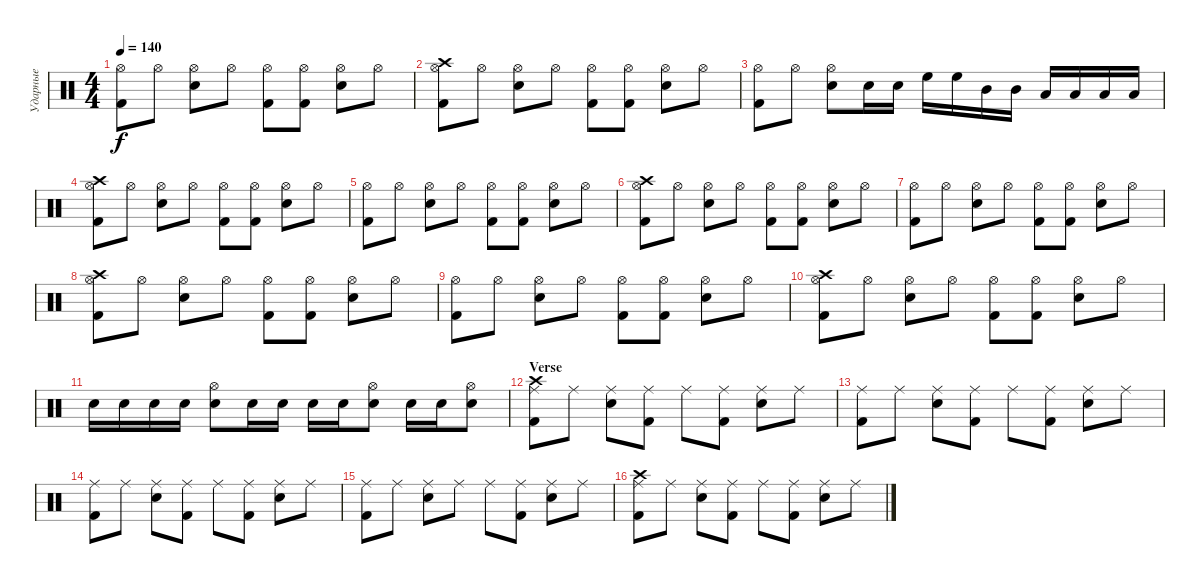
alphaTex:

\track ("Ударные" "Ударные") {instrument percussion}
\staff {score}
\articulation defaults
\ts (4 4)
\tempo 140
\clef neutral
\ks c
("Hi-Hat (open)" "Kick (hit) 2").8{dy f} "Hi-Hat (open)".8 ("Hi-Hat (open)" "Snare (hit) 2").8 "Hi-Hat (open)".8 ("Hi-Hat (open)" "Kick (hit) 2").8 ("Hi-Hat (open)" "Kick (hit) 2").8 ("Hi-Hat (open)" "Snare (hit) 2").8 "Hi-Hat (open)".8 |
("Hi-Hat (open)" "Crash high (hit)" "Kick (hit) 2").8 "Hi-Hat (open)".8 ("Hi-Hat (open)" "Snare (hit) 2").8 "Hi-Hat (open)".8 ("Hi-Hat (open)" "Kick (hit) 2").8 ("Hi-Hat (open)" "Kick (hit) 2").8 ("Hi-Hat (open)" "Snare (hit) 2").8 "Hi-Hat (open)".8 |
("Hi-Hat (open)" "Kick (hit) 2").8 "Hi-Hat (open)".8 ("Hi-Hat (open)" "Snare (hit) 2").8 "Snare (hit) 2".16 "Snare (hit) 2".16 "High Floor Tom (hit)".16 "High Floor Tom (hit)".16 "Mid Tom (hit)".16 "Mid Tom (hit)".16 "Low Tom (hit)".16 "Low Tom (hit)".16 "Low Floor Tom (hit)".16 "Low Floor Tom (hit)".16 |
("Hi-Hat (open)" "Crash high (hit)" "Kick (hit) 2").8 "Hi-Hat (open)".8 ("Hi-Hat (open)" "Snare (hit) 2").8 "Hi-Hat (open)".8 ("Hi-Hat (open)" "Kick (hit) 2").8 ("Hi-Hat (open)" "Kick (hit) 2").8 ("Hi-Hat (open)" "Snare (hit) 2").8 "Hi-Hat (open)".8 |
("Hi-Hat (open)" "Kick (hit) 2").8 "Hi-Hat (open)".8 ("Hi-Hat (open)" "Snare (hit) 2").8 "Hi-Hat (open)".8 ("Hi-Hat (open)" "Kick (hit) 2").8 ("Hi-Hat (open)" "Kick (hit) 2").8 ("Hi-Hat (open)" "Snare (hit) 2").8 "Hi-Hat (open)".8 |
("Hi-Hat (open)" "Crash high (hit)" "Kick (hit) 2").8 "Hi-Hat (open)".8 ("Hi-Hat (open)" "Snare (hit) 2").8 "Hi-Hat (open)".8 ("Hi-Hat (open)" "Kick (hit) 2").8 ("Hi-Hat (open)" "Kick (hit) 2").8 ("Hi-Hat (open)" "Snare (hit) 2").8 "Hi-Hat (open)".8 |
("Hi-Hat (open)" "Kick (hit) 2").8 "Hi-Hat (open)".8 ("Hi-Hat (open)" "Snare (hit) 2").8 "Hi-Hat (open)".8 ("Hi-Hat (open)" "Kick (hit) 2").8 ("Hi-Hat (open)" "Kick (hit) 2").8 ("Hi-Hat (open)" "Snare (hit) 2").8 "Hi-Hat (open)".8 |
("Hi-Hat (open)" "Crash high (hit)" "Kick (hit) 2").8 "Hi-Hat (open)".8 ("Hi-Hat (open)" "Snare (hit) 2").8 "Hi-Hat (open)".8 ("Hi-Hat (open)" "Kick (hit) 2").8 ("Hi-Hat (open)" "Kick (hit) 2").8 ("Hi-Hat (open)" "Snare (hit) 2").8 "Hi-Hat (open)".8 |
("Hi-Hat (open)" "Kick (hit) 2").8 "Hi-Hat (open)".8 ("Hi-Hat (open)" "Snare (hit) 2").8 "Hi-Hat (open)".8 ("Hi-Hat (open)" "Kick (hit) 2").8 ("Hi-Hat (open)" "Kick (hit) 2").8 ("Hi-Hat (open)" "Snare (hit) 2").8 "Hi-Hat (open)".8 |
("Hi-Hat (open)" "Crash high (hit)" "Kick (hit) 2").8 "Hi-Hat (open)".8 ("Hi-Hat (open)" "Snare (hit) 2").8 "Hi-Hat (open)".8 ("Hi-Hat (open)" "Kick (hit) 2").8 ("Hi-Hat (open)" "Kick (hit) 2").8 ("Hi-Hat (open)" "Snare (hit) 2").8 "Hi-Hat (open)".8 |
"Snare (hit) 2".16 "Snare (hit) 2".16 "Snare (hit) 2".16 "Snare (hit) 2".16 ("Hi-Hat (open)" "Snare (hit) 2").8 "Snare (hit) 2".16 "Snare (hit) 2".16 "Snare (hit) 2".16 "Snare (hit) 2".16 ("Hi-Hat (open)" "Snare (hit) 2").8 "Snare (hit) 2".16 "Snare (hit) 2".16 ("Hi-Hat (open)" "Snare (hit) 2").8 |
\section ("" "Verse")
("Ride (middle)" "Crash high (hit)" "Kick (hit) 2").8 "Ride (middle)".8 ("Ride (middle)" "Snare (hit) 2").8 ("Ride (middle)" "Kick (hit) 2").8 "Ride (middle)".8 ("Ride (middle)" "Kick (hit) 2").8 ("Ride (middle)" "Snare (hit) 2").8 "Ride (middle)".8 |
("Ride (middle)" "Kick (hit) 2").8 "Ride (middle)".8 ("Ride (middle)" "Snare (hit) 2").8 ("Ride (middle)" "Kick (hit) 2").8 "Ride (middle)".8 ("Ride (middle)" "Kick (hit) 2").8 ("Ride (middle)" "Snare (hit) 2").8 "Ride (middle)".8 |
("Ride (middle)" "Kick (hit) 2").8 "Ride (middle)".8 ("Ride (middle)" "Snare (hit) 2").8 ("Ride (middle)" "Kick (hit) 2").8 "Ride (middle)".8 ("Ride (middle)" "Kick (hit) 2").8 ("Ride (middle)" "Snare (hit) 2").8 "Ride (middle)".8 |
("Ride (middle)" "Kick (hit) 2").8 "Ride (middle)".8 ("Ride (middle)" "Snare (hit) 2").8 "Ride (middle)".8 "Ride (middle)".8 ("Ride (middle)" "Kick (hit) 2").8 ("Ride (middle)" "Snare (hit) 2").8 "Ride (middle)".8 |
("Ride (middle)" "Crash high (hit)" "Kick (hit) 2").8 "Ride (middle)".8 ("Ride (middle)" "Snare (hit) 2").8 ("Ride (middle)" "Kick (hit) 2").8 "Ride (middle)".8 ("Ride (middle)" "Kick (hit) 2").8 ("Ride (middle)" "Snare (hit) 2").8 "Ride (middle)".8
